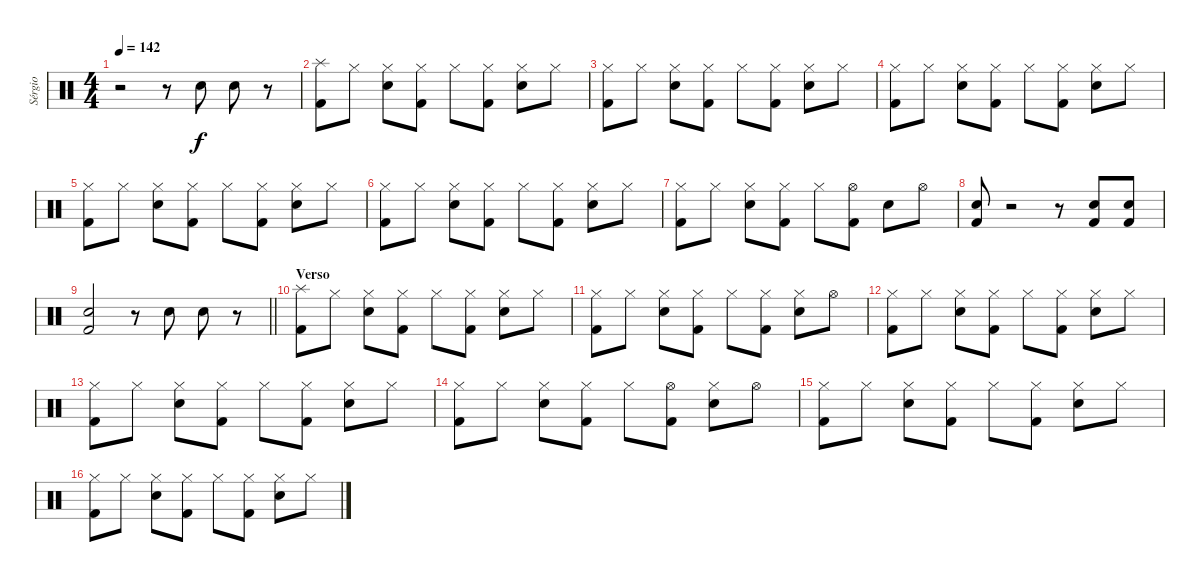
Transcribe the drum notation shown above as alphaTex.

\track ("Sérgio" "Sérgio") {instrument percussion}
\staff {score}
\articulation defaults
\ts (4 4)
\tempo 142
\clef neutral
\ks c
r.2{dy f} r.8 "Snare (hit) 2".8 "Snare (hit) 2".8 r.8 |
("Splash (hit)" "Kick (hit) 2").8 "Hi-Hat (closed)".8 ("Hi-Hat (closed)" "Snare (hit) 2").8 ("Hi-Hat (closed)" "Kick (hit) 2").8 "Hi-Hat (closed)".8 ("Hi-Hat (closed)" "Kick (hit) 2").8 ("Hi-Hat (closed)" "Snare (hit) 2").8 "Hi-Hat (closed)".8 |
("Hi-Hat (closed)" "Kick (hit) 2").8 "Hi-Hat (closed)".8 ("Hi-Hat (closed)" "Snare (hit) 2").8 ("Hi-Hat (closed)" "Kick (hit) 2").8 "Hi-Hat (closed)".8 ("Hi-Hat (closed)" "Kick (hit) 2").8 ("Hi-Hat (closed)" "Snare (hit) 2").8 "Hi-Hat (closed)".8 |
("Hi-Hat (closed)" "Kick (hit) 2").8 "Hi-Hat (closed)".8 ("Hi-Hat (closed)" "Snare (hit) 2").8 ("Hi-Hat (closed)" "Kick (hit) 2").8 "Hi-Hat (closed)".8 ("Hi-Hat (closed)" "Kick (hit) 2").8 ("Hi-Hat (closed)" "Snare (hit) 2").8 "Hi-Hat (closed)".8 |
("Hi-Hat (closed)" "Kick (hit) 2").8 "Hi-Hat (closed)".8 ("Hi-Hat (closed)" "Snare (hit) 2").8 ("Hi-Hat (closed)" "Kick (hit) 2").8 "Hi-Hat (closed)".8 ("Hi-Hat (closed)" "Kick (hit) 2").8 ("Hi-Hat (closed)" "Snare (hit) 2").8 "Hi-Hat (closed)".8 |
("Hi-Hat (closed)" "Kick (hit) 2").8 "Hi-Hat (closed)".8 ("Hi-Hat (closed)" "Snare (hit) 2").8 ("Hi-Hat (closed)" "Kick (hit) 2").8 "Hi-Hat (closed)".8 ("Hi-Hat (closed)" "Kick (hit) 2").8 ("Hi-Hat (closed)" "Snare (hit) 2").8 "Hi-Hat (closed)".8 |
("Hi-Hat (closed)" "Kick (hit) 2").8 "Hi-Hat (closed)".8 ("Hi-Hat (closed)" "Snare (hit) 2").8 ("Hi-Hat (closed)" "Kick (hit) 2").8 "Hi-Hat (closed)".8 ("Hi-Hat (open)" "Kick (hit) 2").8 "Snare (hit) 2".8 "Hi-Hat (open)".8 |
("Snare (hit) 2" "Kick (hit) 2").8 r.2 r.8 ("Snare (hit) 2" "Kick (hit) 2").8 ("Snare (hit) 2" "Kick (hit) 2").8 |
\barLineRight lightlight
("Snare (hit) 2" "Kick (hit) 2").2 r.8 "Snare (hit) 2".8 "Snare (hit) 2".8 r.8 |
\section ("" "Verso")
("Splash (hit)" "Kick (hit) 2").8 "Hi-Hat (closed)".8 ("Hi-Hat (closed)" "Snare (hit) 2").8 ("Hi-Hat (closed)" "Kick (hit) 2").8 "Hi-Hat (closed)".8 ("Hi-Hat (closed)" "Kick (hit) 2").8 ("Hi-Hat (closed)" "Snare (hit) 2").8 "Hi-Hat (closed)".8 |
("Hi-Hat (closed)" "Kick (hit) 2").8 "Hi-Hat (closed)".8 ("Hi-Hat (closed)" "Snare (hit) 2").8 ("Hi-Hat (closed)" "Kick (hit) 2").8 "Hi-Hat (closed)".8 ("Hi-Hat (closed)" "Kick (hit) 2").8 ("Hi-Hat (closed)" "Snare (hit) 2").8 "Hi-Hat (open)".8 |
("Hi-Hat (closed)" "Kick (hit) 2").8 "Hi-Hat (closed)".8 ("Hi-Hat (closed)" "Snare (hit) 2").8 ("Hi-Hat (closed)" "Kick (hit) 2").8 "Hi-Hat (closed)".8 ("Hi-Hat (closed)" "Kick (hit) 2").8 ("Hi-Hat (closed)" "Snare (hit) 2").8 "Hi-Hat (closed)".8 |
("Hi-Hat (closed)" "Kick (hit) 2").8 "Hi-Hat (closed)".8 ("Hi-Hat (closed)" "Snare (hit) 2").8 ("Hi-Hat (closed)" "Kick (hit) 2").8 "Hi-Hat (closed)".8 ("Hi-Hat (closed)" "Kick (hit) 2").8 ("Hi-Hat (closed)" "Snare (hit) 2").8 "Hi-Hat (closed)".8 |
("Hi-Hat (closed)" "Kick (hit) 2").8 "Hi-Hat (closed)".8 ("Hi-Hat (closed)" "Snare (hit) 2").8 ("Hi-Hat (closed)" "Kick (hit) 2").8 "Hi-Hat (closed)".8 ("Hi-Hat (open)" "Kick (hit) 2").8 ("Hi-Hat (closed)" "Snare (hit) 2").8 "Hi-Hat (open)".8 |
("Hi-Hat (closed)" "Kick (hit) 2").8 "Hi-Hat (closed)".8 ("Hi-Hat (closed)" "Snare (hit) 2").8 ("Hi-Hat (closed)" "Kick (hit) 2").8 "Hi-Hat (closed)".8 ("Hi-Hat (closed)" "Kick (hit) 2").8 ("Hi-Hat (closed)" "Snare (hit) 2").8 "Hi-Hat (closed)".8 |
("Hi-Hat (closed)" "Kick (hit) 2").8 "Hi-Hat (closed)".8 ("Hi-Hat (closed)" "Snare (hit) 2").8 ("Hi-Hat (closed)" "Kick (hit) 2").8 "Hi-Hat (closed)".8 ("Hi-Hat (closed)" "Kick (hit) 2").8 ("Hi-Hat (closed)" "Snare (hit) 2").8 "Hi-Hat (closed)".8
